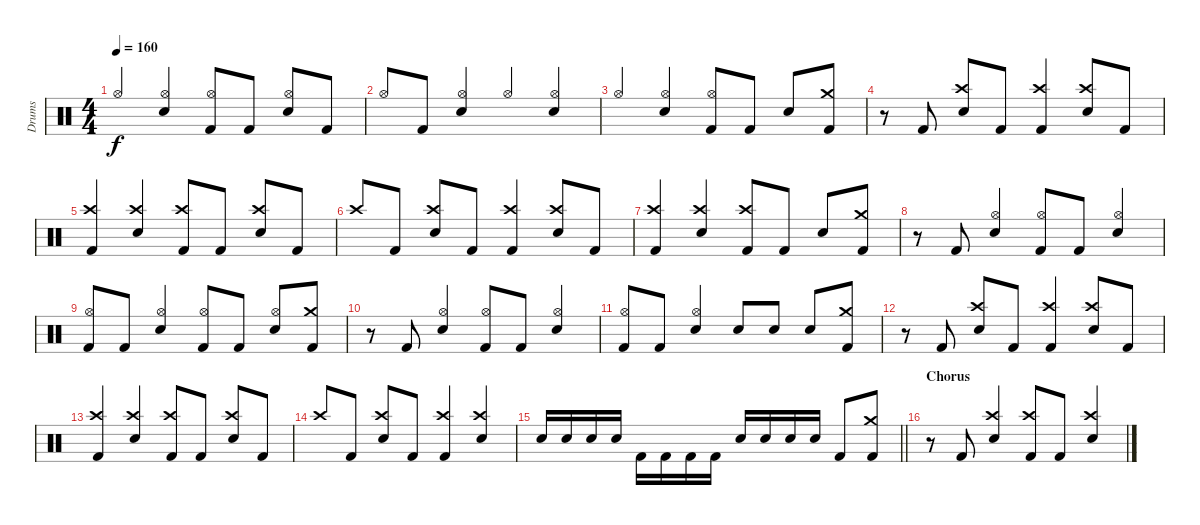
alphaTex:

\track ("Drums" "Drums") {solo instrument percussion}
\staff {score}
\articulation defaults
\ts (4 4)
\tempo 160
\clef neutral
\ks c "Hi-Hat (open)".4{dy f beam Up}
("Hi-Hat (open)" "Snare (hit) 2").4{beam Up} ("Hi-Hat (open)" "Kick (hit) 2").8{beam Up} "Kick (hit) 2".8{beam Up} ("Hi-Hat (open)" "Snare (hit) 2").8{beam Up} "Kick (hit) 2".8{beam Up} |
"Hi-Hat (open)".8{beam Up} "Kick (hit) 2".8{beam Up} ("Hi-Hat (open)" "Snare (hit) 2").4{beam Up} "Hi-Hat (open)".4{beam Up} ("Hi-Hat (open)" "Snare (hit) 2").4{beam Up} |
"Hi-Hat (open)".4{beam Up} ("Hi-Hat (open)" "Snare (hit) 2").4{beam Up} ("Hi-Hat (open)" "Kick (hit) 2").8{beam Up} "Kick (hit) 2".8{beam Up} "Snare (hit) 2".8{beam Up} ("Crash medium (hit)" "Kick (hit) 2").8{beam Up} |
r.8{beam Up} "Kick (hit) 2".8{beam Down} ("Crash high (hit)" "Snare (hit) 2").8{beam Up} "Kick (hit) 2".8{beam Up} ("Crash high (hit)" "Kick (hit) 2").4{beam Up} ("Crash high (hit)" "Snare (hit) 2").8{beam Up} "Kick (hit) 2".8{beam Up} |
("Crash high (hit)" "Kick (hit) 2").4{beam Up} ("Crash high (hit)" "Snare (hit) 2").4{beam Up} ("Crash high (hit)" "Kick (hit) 2").8{beam Up} "Kick (hit) 2".8{beam Up} ("Crash high (hit)" "Snare (hit) 2").8{beam Up} "Kick (hit) 2".8{beam Up} |
"Crash high (hit)".8{beam Up} "Kick (hit) 2".8{beam Up} ("Crash high (hit)" "Snare (hit) 2").8{beam Up} "Kick (hit) 2".8{beam Up} ("Crash high (hit)" "Kick (hit) 2").4{beam Up} ("Crash high (hit)" "Snare (hit) 2").8{beam Up} "Kick (hit) 2".8{beam Up} |
("Crash high (hit)" "Kick (hit) 2").4{beam Up} ("Crash high (hit)" "Snare (hit) 2").4{beam Up} ("Crash high (hit)" "Kick (hit) 2").8{beam Up} "Kick (hit) 2".8{beam Up} "Snare (hit) 2".8{beam Up} ("Crash medium (hit)" "Kick (hit) 2").8{beam Up} |
r.8{beam Up} "Kick (hit) 2".8{beam Down} ("Hi-Hat (open)" "Snare (hit) 2").4{beam Up} ("Hi-Hat (open)" "Kick (hit) 2").8{beam Up} "Kick (hit) 2".8{beam Up} ("Hi-Hat (open)" "Snare (hit) 2").4{beam Up} |
("Hi-Hat (open)" "Kick (hit) 2").8{beam Up} "Kick (hit) 2".8{beam Up} ("Hi-Hat (open)" "Snare (hit) 2").4{beam Up} ("Hi-Hat (open)" "Kick (hit) 2").8{beam Up} "Kick (hit) 2".8{beam Up} ("Hi-Hat (open)" "Snare (hit) 2").8{beam Up} ("Crash medium (hit)" "Kick (hit) 2").8{beam Up} |
r.8{beam Up} "Kick (hit) 2".8{beam Down} ("Hi-Hat (open)" "Snare (hit) 2").4{beam Up} ("Hi-Hat (open)" "Kick (hit) 2").8{beam Up} "Kick (hit) 2".8{beam Up} ("Hi-Hat (open)" "Snare (hit) 2").4{beam Up} |
("Hi-Hat (open)" "Kick (hit) 2").8{beam Up} "Kick (hit) 2".8{beam Up} ("Hi-Hat (open)" "Snare (hit) 2").4{beam Up} "Snare (hit) 2".8{beam Up} "Snare (hit) 2".8{beam Up} "Snare (hit) 2".8{beam Up} ("Crash medium (hit)" "Kick (hit) 2").8{beam Up} |
r.8{beam Up} "Kick (hit) 2".8{beam Down} ("Crash high (hit)" "Snare (hit) 2").8{beam Up} "Kick (hit) 2".8{beam Up} ("Crash high (hit)" "Kick (hit) 2").4{beam Up} ("Crash high (hit)" "Snare (hit) 2").8{beam Up} "Kick (hit) 2".8{beam Up} |
("Crash high (hit)" "Kick (hit) 2").4{beam Up} ("Crash high (hit)" "Snare (hit) 2").4{beam Up} ("Crash high (hit)" "Kick (hit) 2").8{beam Up} "Kick (hit) 2".8{beam Up} ("Crash high (hit)" "Snare (hit) 2").8{beam Up} "Kick (hit) 2".8{beam Up} |
"Crash high (hit)".8{beam Up} "Kick (hit) 2".8{beam Up} ("Crash high (hit)" "Snare (hit) 2").8{beam Up} "Kick (hit) 2".8{beam Up} ("Crash high (hit)" "Kick (hit) 2").4{beam Up} ("Crash high (hit)" "Snare (hit) 2").4{beam Up} |
\barLineRight lightlight "Snare (hit) 2".16{beam Up} "Snare (hit) 2".16{beam Up} "Snare (hit) 2".16{beam Up} "Snare (hit) 2".16{beam Up} "Kick (hit) 2".16{beam Down} "Kick (hit) 2".16{beam Down} "Kick (hit) 2".16{beam Down} "Kick (hit) 2".16{beam Down} "Snare (hit) 2".16{beam Up} "Snare (hit) 2".16{beam Up} "Snare (hit) 2".16{beam Up} "Snare (hit) 2".16{beam Up} "Kick (hit) 2".8{beam Up}
("Crash medium (hit)" "Kick (hit) 2").8{beam Up} |
\section ("" "Chorus")
r.8{beam Up} "Kick (hit) 2".8{beam Down} ("Crash high (hit)" "Snare (hit) 2").4{beam Up} ("Crash high (hit)" "Kick (hit) 2").8{beam Up} "Kick (hit) 2".8{beam Up} ("Crash high (hit)" "Snare (hit) 2").4{beam Up}
